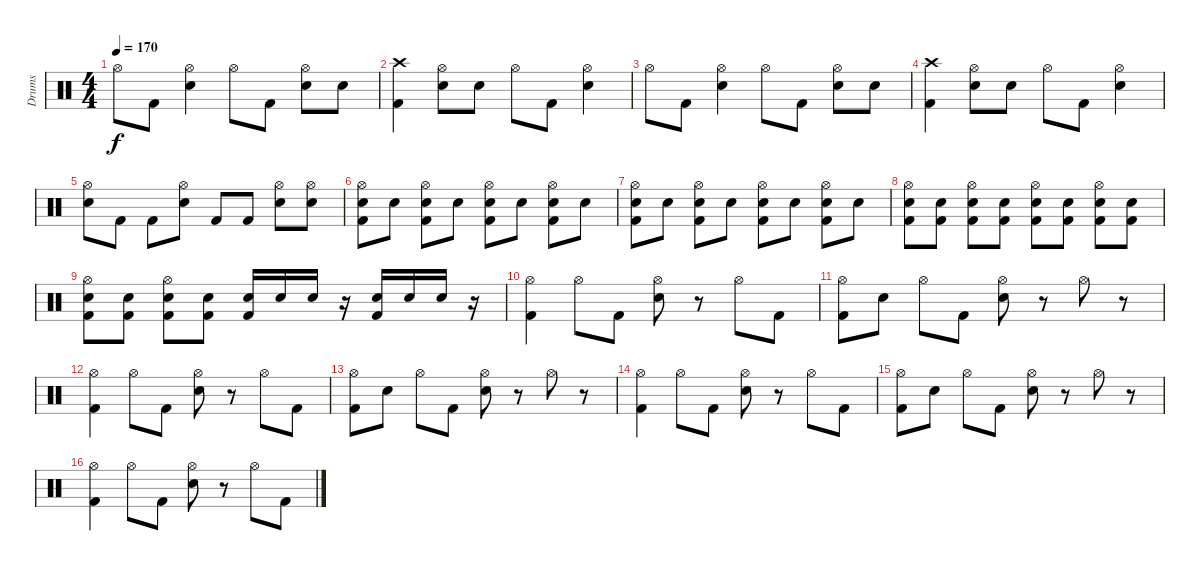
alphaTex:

\track ("Drums" "Drums") {instrument percussion}
\staff {score}
\articulation defaults
\ts (4 4)
\tempo 170
\clef neutral
\ks c "Hi-Hat (open)".8{dy f} "Kick (hit) 2".8
("Hi-Hat (open)" "Electric Snare (hit)").4 "Hi-Hat (open)".8 "Kick (hit) 2".8 ("Hi-Hat (open)" "Electric Snare (hit)").8 "Electric Snare (hit)".8 |
("Crash high (hit)" "Kick (hit) 2").4 ("Hi-Hat (open)" "Electric Snare (hit)").8 "Electric Snare (hit)".8 "Hi-Hat (open)".8 "Kick (hit) 2".8 ("Hi-Hat (open)" "Electric Snare (hit)").4 |
"Hi-Hat (open)".8 "Kick (hit) 2".8 ("Hi-Hat (open)" "Electric Snare (hit)").4 "Hi-Hat (open)".8 "Kick (hit) 2".8 ("Hi-Hat (open)" "Electric Snare (hit)").8 "Electric Snare (hit)".8 |
("Crash high (hit)" "Kick (hit) 2").4 ("Hi-Hat (open)" "Electric Snare (hit)").8 "Electric Snare (hit)".8 "Hi-Hat (open)".8 "Kick (hit) 2".8 ("Hi-Hat (open)" "Electric Snare (hit)").4 |
("Hi-Hat (open)" "Electric Snare (hit)").8 "Kick (hit) 2".8 "Kick (hit) 2".8 ("Hi-Hat (open)" "Electric Snare (hit)").8 "Kick (hit) 2".8 "Kick (hit) 2".8 ("Hi-Hat (open)" "Electric Snare (hit)").8 ("Hi-Hat (open)" "Electric Snare (hit)").8 |
("Hi-Hat (open)" "Electric Snare (hit)" "Kick (hit) 2").8 "Electric Snare (hit)".8 ("Hi-Hat (open)" "Electric Snare (hit)" "Kick (hit) 2").8 "Electric Snare (hit)".8 ("Hi-Hat (open)" "Electric Snare (hit)" "Kick (hit) 2").8 "Electric Snare (hit)".8 ("Hi-Hat (open)" "Electric Snare (hit)" "Kick (hit) 2").8 "Electric Snare (hit)".8 |
("Hi-Hat (open)" "Electric Snare (hit)" "Kick (hit) 2").8 "Electric Snare (hit)".8 ("Hi-Hat (open)" "Electric Snare (hit)" "Kick (hit) 2").8 "Electric Snare (hit)".8 ("Hi-Hat (open)" "Electric Snare (hit)" "Kick (hit) 2").8 "Electric Snare (hit)".8 ("Hi-Hat (open)" "Electric Snare (hit)" "Kick (hit) 2").8 "Electric Snare (hit)".8 |
("Hi-Hat (open)" "Electric Snare (hit)" "Kick (hit) 2").8 ("Electric Snare (hit)" "Kick (hit) 2").8 ("Hi-Hat (open)" "Electric Snare (hit)" "Kick (hit) 2").8 ("Electric Snare (hit)" "Kick (hit) 2").8 ("Hi-Hat (open)" "Electric Snare (hit)" "Kick (hit) 2").8 ("Electric Snare (hit)" "Kick (hit) 2").8 ("Hi-Hat (open)" "Electric Snare (hit)" "Kick (hit) 2").8 ("Electric Snare (hit)" "Kick (hit) 2").8 |
("Hi-Hat (open)" "Electric Snare (hit)" "Kick (hit) 2").8 ("Electric Snare (hit)" "Kick (hit) 2").8 ("Hi-Hat (open)" "Electric Snare (hit)" "Kick (hit) 2").8 ("Electric Snare (hit)" "Kick (hit) 2").8 ("Electric Snare (hit)" "Kick (hit) 2").16 "Electric Snare (hit)".16 "Electric Snare (hit)".16 r.16 ("Electric Snare (hit)" "Kick (hit) 2").16 "Electric Snare (hit)".16 "Electric Snare (hit)".16 r.16 |
("Hi-Hat (open)" "Kick (hit) 2").4 "Hi-Hat (open)".8 "Kick (hit) 2".8 ("Hi-Hat (open)" "Electric Snare (hit)").8 r.8 "Hi-Hat (open)".8 "Kick (hit) 2".8 |
("Hi-Hat (open)" "Kick (hit) 2").8 "Electric Snare (hit)".8 "Hi-Hat (open)".8 "Kick (hit) 2".8 ("Hi-Hat (open)" "Electric Snare (hit)").8 r.8 "Hi-Hat (open)".8 r.8 |
("Hi-Hat (open)" "Kick (hit) 2").4 "Hi-Hat (open)".8 "Kick (hit) 2".8 ("Hi-Hat (open)" "Electric Snare (hit)").8 r.8 "Hi-Hat (open)".8 "Kick (hit) 2".8 |
("Hi-Hat (open)" "Kick (hit) 2").8 "Electric Snare (hit)".8 "Hi-Hat (open)".8 "Kick (hit) 2".8 ("Hi-Hat (open)" "Electric Snare (hit)").8 r.8 "Hi-Hat (open)".8 r.8 |
("Hi-Hat (open)" "Kick (hit) 2").4 "Hi-Hat (open)".8 "Kick (hit) 2".8 ("Hi-Hat (open)" "Electric Snare (hit)").8 r.8 "Hi-Hat (open)".8 "Kick (hit) 2".8 |
("Hi-Hat (open)" "Kick (hit) 2").8 "Electric Snare (hit)".8 "Hi-Hat (open)".8 "Kick (hit) 2".8 ("Hi-Hat (open)" "Electric Snare (hit)").8 r.8 "Hi-Hat (open)".8 r.8 |
("Hi-Hat (open)" "Kick (hit) 2").4 "Hi-Hat (open)".8 "Kick (hit) 2".8 ("Hi-Hat (open)" "Electric Snare (hit)").8 r.8 "Hi-Hat (open)".8 "Kick (hit) 2".8
